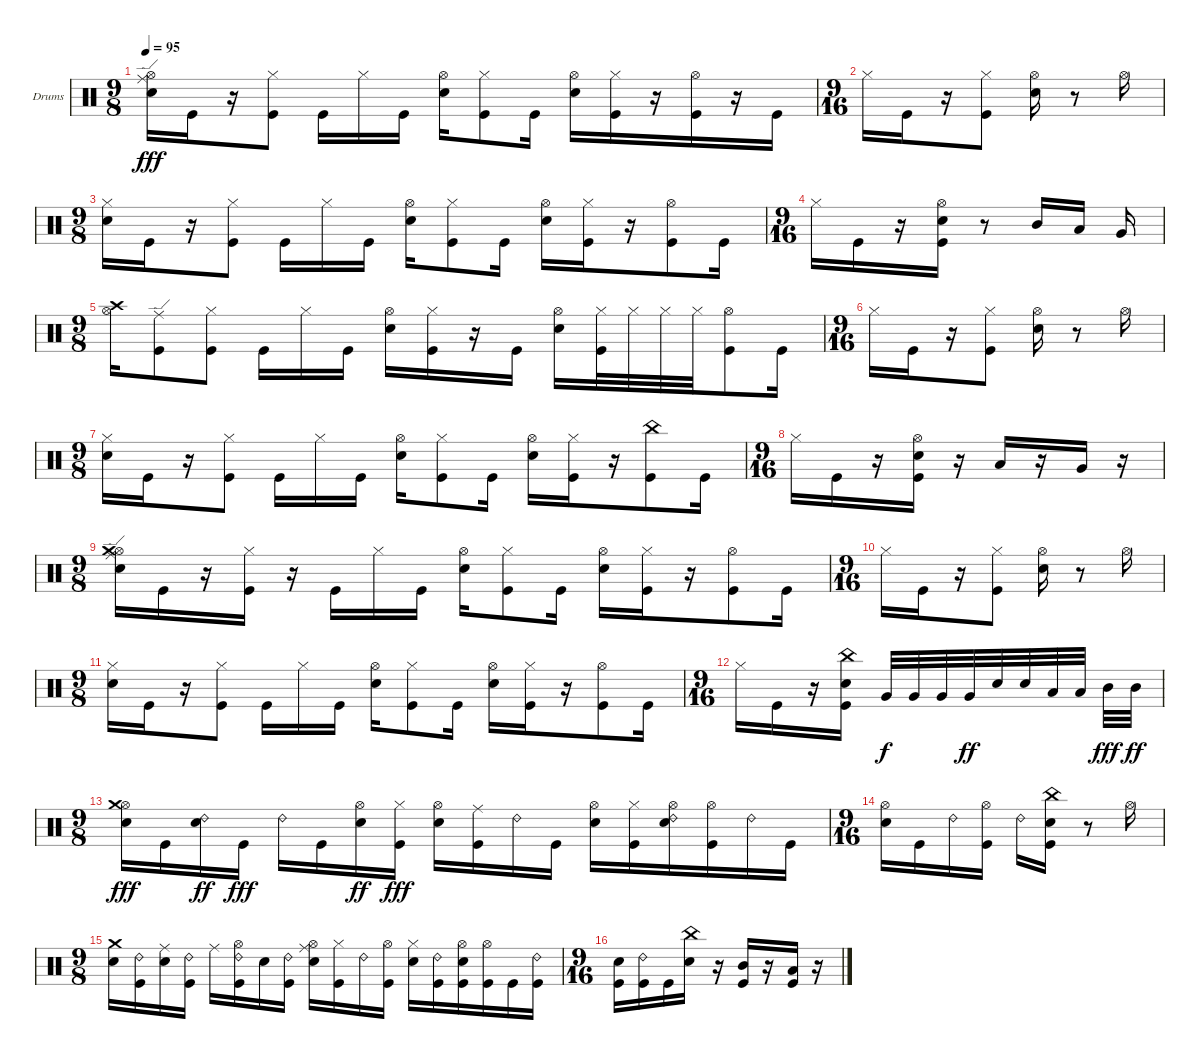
\bracketExtendMode groupsimilarinstruments
\firstSystemTrackNameOrientation horizontal
\otherSystemsTrackNameOrientation horizontal
\track ("Drumkit" "Drums") {instrument percussion}
\staff {score}
\articulation defaults
\ts (9 8)
\beaming (8 2 2 2 3)
\tempo 95
\clef neutral
\ks c
("Snare (hit) 2" "Hi-Hat (open)" "Ride (edge)").16{dy fff} "Kick (hit)".16 r.16 ("Kick (hit)" "Hi-Hat (closed)").8 "Kick (hit)".16 "Hi-Hat (closed)".16 "Kick (hit)".16 ("Snare (hit) 2" "Hi-Hat (open)").16 ("Kick (hit)" "Hi-Hat (closed)").8 "Kick (hit)".16 ("Snare (hit) 2" "Hi-Hat (open)").16 ("Kick (hit)" "Hi-Hat (closed)").16 r.16 ("Hi-Hat (open)" "Kick (hit)").16 r.16 "Kick (hit)".16 |
\ts (9 16)
\beaming (8 2 2 2 2)
"Hi-Hat (closed)".16 "Kick (hit)".16 r.16 ("Kick (hit)" "Hi-Hat (closed)").8 ("Hi-Hat (open)" "Snare (hit) 2").16 r.8 "Hi-Hat (open)".16 |
\ts (9 8)
\beaming (8 2 2 2 3)
("Snare (hit) 2" "Hi-Hat (closed)").16 "Kick (hit)".16 r.16 ("Kick (hit)" "Hi-Hat (closed)").8 "Kick (hit)".16 "Hi-Hat (closed)".16 "Kick (hit)".16 ("Snare (hit) 2" "Hi-Hat (open)").16 ("Kick (hit)" "Hi-Hat (closed)").8 "Kick (hit)".16 ("Snare (hit) 2" "Hi-Hat (open)").16 ("Kick (hit)" "Hi-Hat (closed)").16 r.16 ("Hi-Hat (open)" "Kick (hit)").8 "Kick (hit)".16 |
\ts (9 16)
\beaming (8 2 2 2 2)
"Hi-Hat (closed)".16 "Kick (hit)".16 r.16 ("Hi-Hat (open)" "Snare (hit) 2" "Kick (hit)").16 r.8 "Mid Tom (hit)".16 "Low Tom (hit)".16 "Very Low Tom (hit)".16 |
\ts (9 8)
\beaming (8 2 2 2 3)
("Hi-Hat (open)" "Crash high (hit)").16 ("Kick (hit)" "Ride (edge)").8 ("Kick (hit)" "Hi-Hat (closed)").8 "Kick (hit)".16 "Hi-Hat (closed)".16 "Kick (hit)".16 ("Snare (hit) 2" "Hi-Hat (open)").16 ("Kick (hit)" "Hi-Hat (closed)").16 r.16 "Kick (hit)".16 ("Snare (hit) 2" "Hi-Hat (open)").16 ("Hi-Hat (closed)" "Kick (hit)").32 "Hi-Hat (closed)".32 "Hi-Hat (closed)".32 "Hi-Hat (closed)".32 ("Hi-Hat (open)" "Kick (hit)").8 "Kick (hit)".16 |
\ts (9 16)
\beaming (8 2 2 2 2)
"Hi-Hat (closed)".16 "Kick (hit)".16 r.16 ("Kick (hit)" "Hi-Hat (closed)").8 ("Hi-Hat (open)" "Snare (hit) 2").16 r.8 "Hi-Hat (open)".16 |
\ts (9 8)
\beaming (8 2 2 2 3)
("Snare (hit) 2" "Hi-Hat (closed)").16 "Kick (hit)".16 r.16 ("Kick (hit)" "Hi-Hat (closed)").8 "Kick (hit)".16 "Hi-Hat (closed)".16 "Kick (hit)".16 ("Snare (hit) 2" "Hi-Hat (open)").16 ("Kick (hit)" "Hi-Hat (closed)").8 "Kick (hit)".16 ("Snare (hit) 2" "Hi-Hat (open)").16 ("Kick (hit)" "Hi-Hat (closed)").16 r.16 ("Kick (hit)" "China (hit)").8 "Kick (hit)".16 |
\ts (9 16)
\beaming (8 2 2 2 2)
"Hi-Hat (closed)".16 "Kick (hit)".16 r.16 ("Hi-Hat (open)" "Snare (hit) 2" "Kick (hit)").16 r.16 "Low Tom (hit)".16 r.16 "Very Low Tom (hit)".16 r.16 |
\ts (9 8)
\beaming (8 2 2 2 3)
("Snare (hit) 2" "Hi-Hat (open)" "Ride (edge)" "Crash medium (hit)").16 "Kick (hit)".16 r.16 ("Kick (hit)" "Hi-Hat (closed)").16 r.16 "Kick (hit)".16 "Hi-Hat (closed)".16 "Kick (hit)".16 ("Snare (hit) 2" "Hi-Hat (open)").16 ("Kick (hit)" "Hi-Hat (closed)").8 "Kick (hit)".16 ("Snare (hit) 2" "Hi-Hat (open)").16 ("Kick (hit)" "Hi-Hat (closed)").16 r.16 ("Hi-Hat (open)" "Kick (hit)").8 "Kick (hit)".16 |
\ts (9 16)
\beaming (8 2 2 2 2)
"Hi-Hat (closed)".16 "Kick (hit)".16 r.16 ("Kick (hit)" "Hi-Hat (closed)").8 ("Hi-Hat (open)" "Snare (hit) 2").16 r.8 "Hi-Hat (open)".16 |
\ts (9 8)
\beaming (8 2 2 2 3)
("Snare (hit) 2" "Hi-Hat (closed)").16 "Kick (hit)".16 r.16 ("Kick (hit)" "Hi-Hat (closed)").8 "Kick (hit)".16 "Hi-Hat (closed)".16 "Kick (hit)".16 ("Snare (hit) 2" "Hi-Hat (open)").16 ("Kick (hit)" "Hi-Hat (closed)").8 "Kick (hit)".16 ("Snare (hit) 2" "Hi-Hat (open)").16 ("Kick (hit)" "Hi-Hat (closed)").16 r.16 ("Hi-Hat (open)" "Kick (hit)").8 "Kick (hit)".16 |
\ts (9 16)
\beaming (8 2 2 2 2)
"Hi-Hat (closed)".16 "Kick (hit)".16 r.16 ("Kick (hit)" "Snare (hit) 2" "China (hit)").16 "Very Low Tom (hit)".32{dy f} "Very Low Tom (hit)".32 "Very Low Tom (hit)".32 "Very Low Tom (hit)".32{dy ff} "Snare (hit) 2".32 "Snare (hit) 2".32 "Low Tom (hit)".32 "Low Tom (hit)".32 "Mid Tom (hit)".32{dy fff} "Mid Tom (hit)".32{dy ff} |
\ts (9 8)
\beaming (8 2 2 2 3)
("Snare (hit) 2" "Hi-Hat (open)" "Crash medium (hit)").16{dy fff} "Kick (hit)".16 ("Snare (hit) 2" "Ride (bell) 2").16{dy ff} "Kick (hit)".16{dy fff} "Ride (bell) 2".16 "Kick (hit)".16 ("Snare (hit) 2" "Hi-Hat (open)").16{dy ff} ("Kick (hit)" "Hi-Hat (closed)").16{dy fff} ("Snare (hit) 2" "Hi-Hat (open)").16 ("Kick (hit)" "Ride (middle)").16 "Ride (bell) 2".16 "Kick (hit)".16 ("Snare (hit) 2" "Hi-Hat (open)").16 ("Kick (hit)" "Hi-Hat (closed)").16 ("Snare (hit) 2" "Hi-Hat (open)" "Ride (bell) 2").16 ("Kick (hit)" "Hi-Hat (open)").16 "Ride (bell) 2".16 "Kick (hit)".16 |
\ts (9 16)
\beaming (8 2 2 2 2)
("Snare (hit) 2" "Hi-Hat (open)").16 "Kick (hit)".16 "Ride (bell) 2".16 ("Kick (hit)" "Hi-Hat (open)").16 "Ride (bell) 2".16 ("Kick (hit)" "Snare (hit) 2" "China (hit)").16 r.8 "Hi-Hat (open)".16 |
\ts (9 8)
\beaming (8 2 2 2 3)
("Snare (hit) 2" "Crash medium (hit)").16 ("Kick (hit)" "Ride (bell) 2").16 ("Snare (hit) 2" "Ride (middle)").16 ("Kick (hit)" "Ride (bell) 2").16 "Ride (middle)".16 ("Kick (hit)" "Hi-Hat (open)" "Ride (bell) 2").16 "Snare (hit) 2".16 ("Kick (hit)" "Ride (bell) 2").16 ("Snare (hit) 2" "Hi-Hat (open)" "Ride (middle)").16 ("Kick (hit)" "Hi-Hat (closed)").16 "Ride (bell) 2".16 ("Kick (hit)" "Hi-Hat (open)").16 ("Snare (hit) 2" "Hi-Hat (closed)").16 ("Kick (hit)" "Ride (bell) 2").16 ("Kick (hit)" "Snare (hit) 2" "Hi-Hat (open)").16 ("Kick (hit)" "Hi-Hat (open)").16 "Kick (hit)".16 ("Kick (hit)" "Ride (bell) 2").16 |
\ts (9 16)
\beaming (8 2 2 2 2)
("Kick (hit)" "Snare (hit) 2").16 ("Kick (hit)" "Ride (bell) 2").16 "Kick (hit)".16 ("Snare (hit) 2" "China (hit)").16 r.16 ("Kick (hit)" "Mid Tom (hit)").16 r.16 ("Kick (hit)" "Low Tom (hit)").16 r.16
